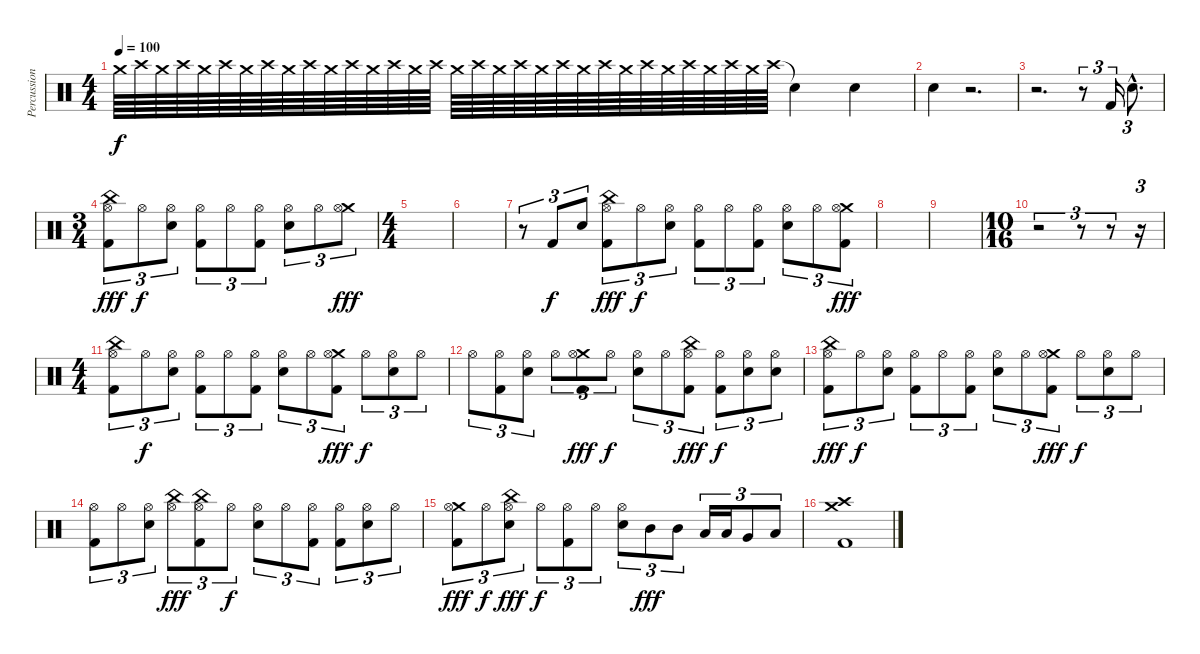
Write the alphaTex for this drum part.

\track ("Percussion" "Percussion") {instrument percussion}
\staff {score}
\articulation defaults
\ts (4 4)
\tempo 100
\clef neutral
\ks c "Crash medium (hit)".64{dy f} "Crash high (hit)".64 "Crash medium (hit)".64 "Crash high (hit)".64 "Crash medium (hit)".64 "Crash high (hit)".64 "Crash medium (hit)".64 "Crash high (hit)".64 "Crash medium (hit)".64 "Crash high (hit)".64 "Crash medium (hit)".64 "Crash high (hit)".64 "Crash medium (hit)".64 "Crash high (hit)".64 "Crash medium (hit)".64 "Crash high (hit)".64 "Crash medium (hit)".64 "Crash high (hit)".64 "Crash medium (hit)".64 "Crash high (hit)".64 "Crash medium (hit)".64 "Crash high (hit)".64 "Crash medium (hit)".64 "Crash high (hit)".64 "Crash medium (hit)".64 "Crash high (hit)".64 "Crash medium (hit)".64 "Crash high (hit)".64 "Crash medium (hit)".64 "Crash high (hit)".64 "Crash medium (hit)".64 "Crash high (hit)".64 "Snare (hit)"{t}.4 "Electric Snare (hit)".4
|
"Electric Snare (hit)".4 r.2{d} |
r.2{d} r.8{tu (3 2)} "Kick (hit) 2".16{tu (3 2)} "Electric Snare (hit)"{hac}.8{d tu (3 2)} |
\ts (3 4)
("China (hit)" "Hi-Hat (open)" "Kick (hit) 2").8{tu (3 2) dy fff} "Hi-Hat (open)".8{tu (3 2) dy f} ("Hi-Hat (open)" "Electric Snare (hit)").8{tu (3 2)} ("Hi-Hat (open)" "Kick (hit) 2").8{tu (3 2)} "Hi-Hat (open)".8{tu (3 2)} ("Hi-Hat (open)" "Kick (hit) 2").8{tu (3 2)} ("Hi-Hat (open)" "Electric Snare (hit)").8{tu (3 2)} "Hi-Hat (open)".8{tu (3 2)} ("Crash medium (hit)" "Hi-Hat (open)").8{tu (3 2) dy fff} |
\ts (4 4)
|
|
r.8{tu (3 2)} "Kick (hit) 2".8{tu (3 2) dy f} "Electric Snare (hit)".8{tu (3 2)} ("China (hit)" "Hi-Hat (open)" "Kick (hit) 2").8{tu (3 2) dy fff} "Hi-Hat (open)".8{tu (3 2) dy f} ("Hi-Hat (open)" "Electric Snare (hit)").8{tu (3 2)} ("Hi-Hat (open)" "Kick (hit) 2").8{tu (3 2)} "Hi-Hat (open)".8{tu (3 2)} ("Hi-Hat (open)" "Kick (hit) 2").8{tu (3 2)} ("Hi-Hat (open)" "Electric Snare (hit)").8{tu (3 2)} "Hi-Hat (open)".8{tu (3 2)} ("Crash medium (hit)" "Hi-Hat (open)" "Kick (hit) 2").8{tu (3 2) dy fff} |
|
|
\ts (10 16)
r.2{tu (3 2)} r.8{tu (3 2)} r.8{tu (3 2)} r.16{tu (3 2)} |
\ts (4 4)
("China (hit)" "Hi-Hat (open)" "Kick (hit) 2").8{tu (3 2)} "Hi-Hat (open)".8{tu (3 2) dy f} ("Hi-Hat (open)" "Electric Snare (hit)").8{tu (3 2)} ("Hi-Hat (open)" "Kick (hit) 2").8{tu (3 2)} "Hi-Hat (open)".8{tu (3 2)} ("Hi-Hat (open)" "Kick (hit) 2").8{tu (3 2)} ("Hi-Hat (open)" "Electric Snare (hit)").8{tu (3 2)} "Hi-Hat (open)".8{tu (3 2)} ("Crash medium (hit)" "Hi-Hat (open)" "Kick (hit) 2").8{tu (3 2) dy fff} "Hi-Hat (open)".8{tu (3 2) dy f} ("Hi-Hat (open)" "Electric Snare (hit)").8{tu (3 2)} "Hi-Hat (open)".8{tu (3 2)} |
"Hi-Hat (open)".8{tu (3 2)} ("Hi-Hat (open)" "Kick (hit) 2").8{tu (3 2)} ("Hi-Hat (open)" "Electric Snare (hit)").8{tu (3 2)} "Hi-Hat (open)".8{tu (3 2)} ("Crash medium (hit)" "Hi-Hat (open)" "Kick (hit) 2").8{tu (3 2) dy fff} "Hi-Hat (open)".8{tu (3 2) dy f} ("Hi-Hat (open)" "Electric Snare (hit)").8{tu (3 2)} "Hi-Hat (open)".8{tu (3 2)} ("China (hit)" "Hi-Hat (open)" "Kick (hit) 2").8{tu (3 2) dy fff} ("Hi-Hat (open)" "Kick (hit) 2").8{tu (3 2) dy f} ("Hi-Hat (open)" "Electric Snare (hit)").8{tu (3 2)} ("Hi-Hat (open)" "Electric Snare (hit)").8{tu (3 2)} |
("China (hit)" "Hi-Hat (open)" "Kick (hit) 2").8{tu (3 2) dy fff} "Hi-Hat (open)".8{tu (3 2) dy f} ("Hi-Hat (open)" "Electric Snare (hit)").8{tu (3 2)} ("Hi-Hat (open)" "Kick (hit) 2").8{tu (3 2)} "Hi-Hat (open)".8{tu (3 2)} ("Hi-Hat (open)" "Kick (hit) 2").8{tu (3 2)} ("Hi-Hat (open)" "Electric Snare (hit)").8{tu (3 2)} "Hi-Hat (open)".8{tu (3 2)} ("Crash medium (hit)" "Hi-Hat (open)" "Kick (hit) 2").8{tu (3 2) dy fff} "Hi-Hat (open)".8{tu (3 2) dy f} ("Hi-Hat (open)" "Electric Snare (hit)").8{tu (3 2)} "Hi-Hat (open)".8{tu (3 2)} |
("Hi-Hat (open)" "Kick (hit) 2").8{tu (3 2)} "Hi-Hat (open)".8{tu (3 2)} ("Hi-Hat (open)" "Electric Snare (hit)").8{tu (3 2)} ("China (hit)" "Hi-Hat (open)").8{tu (3 2) dy fff} ("China (hit)" "Hi-Hat (open)" "Kick (hit) 2").8{tu (3 2)} "Hi-Hat (open)".8{tu (3 2) dy f} ("Hi-Hat (open)" "Electric Snare (hit)").8{tu (3 2)} "Hi-Hat (open)".8{tu (3 2)} ("Hi-Hat (open)" "Kick (hit) 2").8{tu (3 2)} ("Hi-Hat (open)" "Kick (hit) 2").8{tu (3 2)} ("Hi-Hat (open)" "Electric Snare (hit)").8{tu (3 2)} "Hi-Hat (open)".8{tu (3 2)} |
("Crash medium (hit)" "Hi-Hat (open)" "Kick (hit) 2").8{tu (3 2) dy fff} "Hi-Hat (open)".8{tu (3 2) dy f} ("China (hit)" "Hi-Hat (open)" "Electric Snare (hit)").8{tu (3 2) dy fff} "Hi-Hat (open)".8{tu (3 2) dy f} ("Hi-Hat (open)" "Kick (hit) 2").8{tu (3 2)} "Hi-Hat (open)".8{tu (3 2)} ("Hi-Hat (open)" "Electric Snare (hit)").8{tu (3 2)} "Mid Tom (hit)".8{tu (3 2) dy fff} "Mid Tom (hit)".8{tu (3 2)} "Low Tom (hit)".16{tu (3 2)} "Low Tom (hit)".16{tu (3 2)} "Very Low Tom (hit)".8{tu (3 2)} "Low Floor Tom (hit)".8{tu (3 2)} |
("Crash medium (hit)" "Crash high (hit)" "Kick (hit) 2").1
